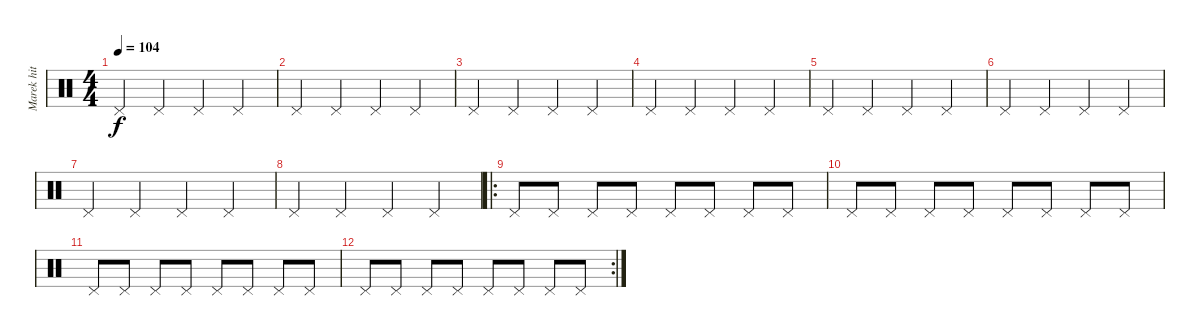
\track ("Marek hit hat" "Marek hit ") {instrument percussion}
\staff {score}
\articulation defaults
\ts (4 4)
\tempo 104
\clef neutral
\ks c "Pedal Hi-Hat (hit)".4{dy f} "Pedal Hi-Hat (hit)".4 "Pedal Hi-Hat (hit)".4 "Pedal Hi-Hat (hit)".4
|
"Pedal Hi-Hat (hit)".4 "Pedal Hi-Hat (hit)".4 "Pedal Hi-Hat (hit)".4 "Pedal Hi-Hat (hit)".4 |
"Pedal Hi-Hat (hit)".4 "Pedal Hi-Hat (hit)".4 "Pedal Hi-Hat (hit)".4 "Pedal Hi-Hat (hit)".4 |
"Pedal Hi-Hat (hit)".4 "Pedal Hi-Hat (hit)".4 "Pedal Hi-Hat (hit)".4 "Pedal Hi-Hat (hit)".4 |
"Pedal Hi-Hat (hit)".4 "Pedal Hi-Hat (hit)".4 "Pedal Hi-Hat (hit)".4 "Pedal Hi-Hat (hit)".4 |
"Pedal Hi-Hat (hit)".4 "Pedal Hi-Hat (hit)".4 "Pedal Hi-Hat (hit)".4 "Pedal Hi-Hat (hit)".4 |
"Pedal Hi-Hat (hit)".4 "Pedal Hi-Hat (hit)".4 "Pedal Hi-Hat (hit)".4 "Pedal Hi-Hat (hit)".4 |
"Pedal Hi-Hat (hit)".4 "Pedal Hi-Hat (hit)".4 "Pedal Hi-Hat (hit)".4 "Pedal Hi-Hat (hit)".4 |
\ro "Pedal Hi-Hat (hit)".8 "Pedal Hi-Hat (hit)".8 "Pedal Hi-Hat (hit)".8 "Pedal Hi-Hat (hit)".8 "Pedal Hi-Hat (hit)".8 "Pedal Hi-Hat (hit)".8 "Pedal Hi-Hat (hit)".8 "Pedal Hi-Hat (hit)".8
|
"Pedal Hi-Hat (hit)".8 "Pedal Hi-Hat (hit)".8 "Pedal Hi-Hat (hit)".8 "Pedal Hi-Hat (hit)".8 "Pedal Hi-Hat (hit)".8 "Pedal Hi-Hat (hit)".8 "Pedal Hi-Hat (hit)".8 "Pedal Hi-Hat (hit)".8 |
"Pedal Hi-Hat (hit)".8 "Pedal Hi-Hat (hit)".8 "Pedal Hi-Hat (hit)".8 "Pedal Hi-Hat (hit)".8 "Pedal Hi-Hat (hit)".8 "Pedal Hi-Hat (hit)".8 "Pedal Hi-Hat (hit)".8 "Pedal Hi-Hat (hit)".8 |
\rc 2 "Pedal Hi-Hat (hit)".8 "Pedal Hi-Hat (hit)".8 "Pedal Hi-Hat (hit)".8 "Pedal Hi-Hat (hit)".8 "Pedal Hi-Hat (hit)".8 "Pedal Hi-Hat (hit)".8 "Pedal Hi-Hat (hit)".8 "Pedal Hi-Hat (hit)".8
